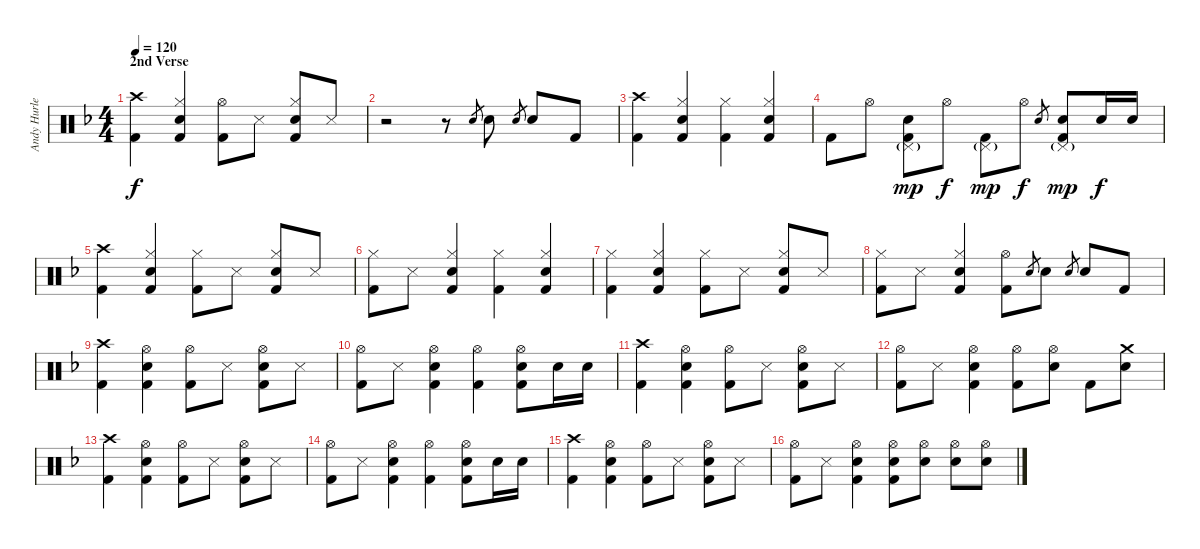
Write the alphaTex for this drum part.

\track ("Andy Hurley" "Andy Hurle") {instrument percussion}
\staff {score}
\articulation defaults
\ts (4 4)
\section ("" "2nd Verse")
\tempo 120
\clef neutral
\ks dminor
("Crash high (hit)" "Kick (hit) 2").4{dy f} ("Hi-Hat (closed)" "Snare (hit) 2" "Kick (hit) 2").4 ("Hi-Hat (open)" "Kick (hit) 2").8 "Snare (side stick) 3".8 ("Hi-Hat (closed)" "Snare (hit) 2" "Kick (hit) 2").8 "Snare (side stick) 3".8 |
r.2 r.8 "Snare (hit) 2".8{gr} "Snare (hit) 2".8 "Snare (hit) 2".8{gr} "Snare (hit) 2".8 "Kick (hit) 2".8 |
("Crash high (hit)" "Kick (hit) 2").4 ("Hi-Hat (closed)" "Snare (hit) 2" "Kick (hit) 2").4 ("Hi-Hat (closed)" "Kick (hit) 2").4 ("Hi-Hat (closed)" "Snare (hit) 2" "Kick (hit) 2").4 |
"Kick (hit) 2".8 "Hi-Hat (open)".8 ("Pedal Hi-Hat (hit)"{g} "Snare (hit) 2" "Kick (hit) 2").8{dy mp} "Hi-Hat (open)".8{dy f} ("Pedal Hi-Hat (hit)"{g} "Kick (hit) 2").8{dy mp} "Hi-Hat (open)".8{dy f} "Snare (hit) 2".8{gr} ("Pedal Hi-Hat (hit)"{g} "Snare (hit) 2" "Kick (hit) 2").8{dy mp} "Snare (hit) 2".16{dy f} "Snare (hit) 2".16 |
("Crash high (hit)" "Kick (hit) 2").4 ("Hi-Hat (closed)" "Snare (hit) 2" "Kick (hit) 2").4 ("Hi-Hat (closed)" "Kick (hit) 2").8 "Snare (side stick) 3".8 ("Hi-Hat (closed)" "Snare (hit) 2" "Kick (hit) 2").8 "Snare (side stick) 3".8 |
("Hi-Hat (closed)" "Kick (hit) 2").8 "Snare (side stick) 3".8 ("Hi-Hat (closed)" "Snare (hit) 2" "Kick (hit) 2").4 ("Hi-Hat (closed)" "Kick (hit) 2").4 ("Hi-Hat (closed)" "Snare (hit) 2" "Kick (hit) 2").4 |
("Hi-Hat (closed)" "Kick (hit) 2").4 ("Hi-Hat (closed)" "Snare (hit) 2" "Kick (hit) 2").4 ("Hi-Hat (closed)" "Kick (hit) 2").8 "Snare (side stick) 3".8 ("Hi-Hat (closed)" "Snare (hit) 2" "Kick (hit) 2").8 "Snare (side stick) 3".8 |
("Hi-Hat (closed)" "Kick (hit) 2").8 "Snare (side stick) 3".8 ("Hi-Hat (closed)" "Snare (hit) 2" "Kick (hit) 2").4 ("Hi-Hat (open)" "Kick (hit) 2").8 "Snare (hit) 2".8{gr} "Snare (hit) 2".8 "Snare (hit) 2".8{gr} "Snare (hit) 2".8 "Kick (hit) 2".8 |
("Crash high (hit)" "Kick (hit) 2").4 ("Hi-Hat (open)" "Snare (hit) 2" "Kick (hit) 2").4 ("Hi-Hat (open)" "Kick (hit) 2").8 "Snare (side stick) 3".8 ("Hi-Hat (open)" "Snare (hit) 2" "Kick (hit) 2").8 "Snare (side stick) 3".8 |
("Hi-Hat (open)" "Kick (hit) 2").8 "Snare (side stick) 3".8 ("Hi-Hat (open)" "Snare (hit) 2" "Kick (hit) 2").4 ("Hi-Hat (open)" "Kick (hit) 2").4 ("Hi-Hat (open)" "Snare (hit) 2" "Kick (hit) 2").8 "Snare (hit) 2".16 "Snare (hit) 2".16 |
("Crash high (hit)" "Kick (hit) 2").4 ("Hi-Hat (open)" "Snare (hit) 2" "Kick (hit) 2").4 ("Hi-Hat (open)" "Kick (hit) 2").8 "Snare (side stick) 3".8 ("Hi-Hat (open)" "Snare (hit) 2" "Kick (hit) 2").8 "Snare (side stick) 3".8 |
("Hi-Hat (open)" "Kick (hit) 2").8 "Snare (side stick) 3".8 ("Hi-Hat (open)" "Snare (hit) 2" "Kick (hit) 2").4 ("Hi-Hat (open)" "Kick (hit) 2").8 ("Hi-Hat (open)" "Snare (hit) 2").8 "Kick (hit) 2".8 ("Crash medium (hit)" "Snare (hit) 2").8 |
("Crash high (hit)" "Kick (hit) 2").4 ("Hi-Hat (open)" "Snare (hit) 2" "Kick (hit) 2").4 ("Hi-Hat (open)" "Kick (hit) 2").8 "Snare (side stick) 3".8 ("Hi-Hat (open)" "Snare (hit) 2" "Kick (hit) 2").8 "Snare (side stick) 3".8 |
("Hi-Hat (open)" "Kick (hit) 2").8 "Snare (side stick) 3".8 ("Hi-Hat (open)" "Snare (hit) 2" "Kick (hit) 2").4 ("Hi-Hat (open)" "Kick (hit) 2").4 ("Hi-Hat (open)" "Snare (hit) 2" "Kick (hit) 2").8 "Snare (hit) 2".16 "Snare (hit) 2".16 |
("Crash high (hit)" "Kick (hit) 2").4 ("Hi-Hat (open)" "Snare (hit) 2" "Kick (hit) 2").4 ("Hi-Hat (open)" "Kick (hit) 2").8 "Snare (side stick) 3".8 ("Hi-Hat (open)" "Snare (hit) 2" "Kick (hit) 2").8 "Snare (side stick) 3".8 |
("Hi-Hat (open)" "Kick (hit) 2").8 "Snare (side stick) 3".8 ("Hi-Hat (open)" "Snare (hit) 2" "Kick (hit) 2").4 ("Hi-Hat (open)" "Snare (hit) 2" "Kick (hit) 2").8 ("Hi-Hat (open)" "Snare (hit) 2").8 ("Hi-Hat (open)" "Snare (hit) 2").8 ("Hi-Hat (open)" "Snare (hit) 2").8
